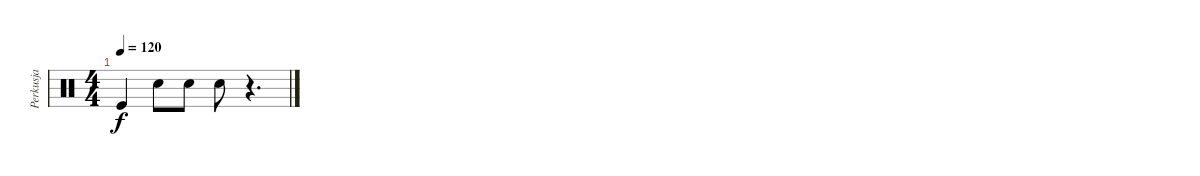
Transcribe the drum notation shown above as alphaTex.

\track ("Perkusja" "Perkusja") {instrument percussion}
\staff {score}
\articulation defaults
\ts (4 4)
\tempo 120
\clef neutral
\ks c "Kick (hit)".4{dy f} "Electric Snare (hit)".8 "Electric Snare (hit)".8 "Electric Snare (hit)".8
r.4{d}
